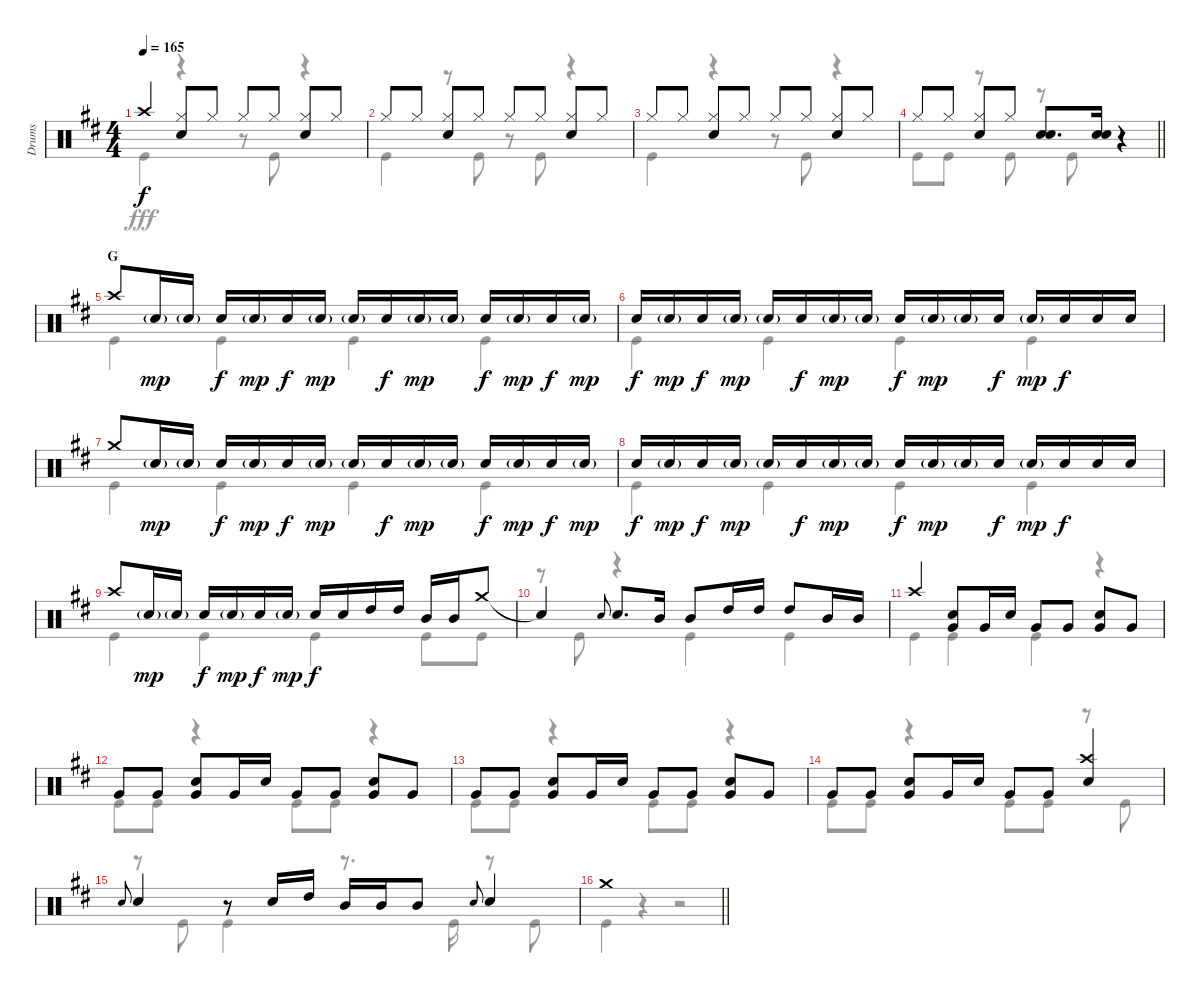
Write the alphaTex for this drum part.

\track ("Drums" "Drums") {instrument percussion}
\staff {score}
\articulation defaults
\voice
\ts (4 4)
\tempo 165
\clef neutral
\ks d "Crash high (hit)".4{dy f}
("Hi-Hat (closed)" "Snare (hit) 2").8 "Hi-Hat (closed)".8 "Hi-Hat (closed)".8 "Hi-Hat (closed)".8 ("Hi-Hat (closed)" "Snare (hit) 2").8 "Hi-Hat (closed)".8 |
"Hi-Hat (closed)".8 "Hi-Hat (closed)".8 ("Hi-Hat (closed)" "Snare (hit) 2").8 "Hi-Hat (closed)".8 "Hi-Hat (closed)".8 "Hi-Hat (closed)".8 ("Hi-Hat (closed)" "Snare (hit) 2").8 "Hi-Hat (closed)".8 |
"Hi-Hat (closed)".8 "Hi-Hat (closed)".8 ("Hi-Hat (closed)" "Snare (hit) 2").8 "Hi-Hat (closed)".8 "Hi-Hat (closed)".8 "Hi-Hat (closed)".8 ("Hi-Hat (closed)" "Snare (hit) 2").8 "Hi-Hat (closed)".8 |
\barLineRight lightlight "Hi-Hat (closed)".8 "Hi-Hat (closed)".8
("Hi-Hat (closed)" "Snare (hit) 2").8 "Hi-Hat (closed)".8 ("Snare (hit) 2" "Snare (hit) 2").8{d} ("Snare (hit) 2" "Snare (hit) 2").16 r.4 |
\section ("" "G")
"Crash high (hit)".8 "Snare (hit) 2"{g}.16{dy mp} "Snare (hit) 2"{g}.16 "Snare (hit) 2".16{dy f} "Snare (hit) 2"{g}.16{dy mp} "Snare (hit) 2".16{dy f} "Snare (hit) 2"{g}.16{dy mp} "Snare (hit) 2"{g}.16 "Snare (hit) 2".16{dy f} "Snare (hit) 2"{g}.16{dy mp} "Snare (hit) 2"{g}.16 "Snare (hit) 2".16{dy f} "Snare (hit) 2"{g}.16{dy mp} "Snare (hit) 2".16{dy f} "Snare (hit) 2"{g}.16{dy mp} |
"Snare (hit) 2".16{dy f} "Snare (hit) 2"{g}.16{dy mp} "Snare (hit) 2".16{dy f} "Snare (hit) 2"{g}.16{dy mp} "Snare (hit) 2"{g}.16 "Snare (hit) 2".16{dy f} "Snare (hit) 2"{g}.16{dy mp} "Snare (hit) 2"{g}.16 "Snare (hit) 2".16{dy f} "Snare (hit) 2"{g}.16{dy mp} "Snare (hit) 2"{g}.16 "Snare (hit) 2".16{dy f} "Snare (hit) 2"{g}.16{dy mp} "Snare (hit) 2".16{dy f} "Snare (hit) 2".16 "Snare (hit) 2".16 |
"Crash medium (hit)".8 "Snare (hit) 2"{g}.16{dy mp} "Snare (hit) 2"{g}.16 "Snare (hit) 2".16{dy f} "Snare (hit) 2"{g}.16{dy mp} "Snare (hit) 2".16{dy f} "Snare (hit) 2"{g}.16{dy mp} "Snare (hit) 2"{g}.16 "Snare (hit) 2".16{dy f} "Snare (hit) 2"{g}.16{dy mp} "Snare (hit) 2"{g}.16 "Snare (hit) 2".16{dy f} "Snare (hit) 2"{g}.16{dy mp} "Snare (hit) 2".16{dy f} "Snare (hit) 2"{g}.16{dy mp} |
"Snare (hit) 2".16{dy f} "Snare (hit) 2"{g}.16{dy mp} "Snare (hit) 2".16{dy f} "Snare (hit) 2"{g}.16{dy mp} "Snare (hit) 2"{g}.16 "Snare (hit) 2".16{dy f} "Snare (hit) 2"{g}.16{dy mp} "Snare (hit) 2"{g}.16 "Snare (hit) 2".16{dy f} "Snare (hit) 2"{g}.16{dy mp} "Snare (hit) 2"{g}.16 "Snare (hit) 2".16{dy f} "Snare (hit) 2"{g}.16{dy mp} "Snare (hit) 2".16{dy f} "Snare (hit) 2".16 "Snare (hit) 2".16 |
"Crash high (hit)".8 "Snare (hit) 2"{g}.16{dy mp} "Snare (hit) 2"{g}.16 "Snare (hit) 2".16{dy f} "Snare (hit) 2"{g}.16{dy mp} "Snare (hit) 2".16{dy f} "Snare (hit) 2"{g}.16{dy mp} "Snare (hit) 2".16{dy f} "Snare (hit) 2".16 "High Tom (hit)".16 "High Tom (hit)".16 "Mid Tom (hit)".16 "Mid Tom (hit)".16 "Crash medium (hit)".8 |
"Snare (hit)"{t}.4 "Snare (hit) 2".8{gr onbeat} "Snare (hit) 2".8{d} "Mid Tom (hit)".16 "Mid Tom (hit)".8 "High Tom (hit)".16 "High Tom (hit)".16 "High Tom (hit)".8 "Mid Tom (hit)".16 "Mid Tom (hit)".16 |
"Crash high (hit)".4 ("Snare (hit) 2" "Very Low Tom (hit)").8 "Very Low Tom (hit)".16 "Snare (hit) 2".16 "Very Low Tom (hit)".8 "Very Low Tom (hit)".8 ("Snare (hit) 2" "Very Low Tom (hit)").8 "Very Low Tom (hit)".8 |
"Very Low Tom (hit)".8 "Very Low Tom (hit)".8 ("Snare (hit) 2" "Very Low Tom (hit)").8 "Very Low Tom (hit)".16 "Snare (hit) 2".16 "Very Low Tom (hit)".8 "Very Low Tom (hit)".8 ("Snare (hit) 2" "Very Low Tom (hit)").8 "Very Low Tom (hit)".8 |
"Very Low Tom (hit)".8 "Very Low Tom (hit)".8 ("Snare (hit) 2" "Very Low Tom (hit)").8 "Very Low Tom (hit)".16 "Snare (hit) 2".16 "Very Low Tom (hit)".8 "Very Low Tom (hit)".8 ("Snare (hit) 2" "Very Low Tom (hit)").8 "Very Low Tom (hit)".8 |
"Very Low Tom (hit)".8 "Very Low Tom (hit)".8 ("Snare (hit) 2" "Very Low Tom (hit)").8 "Very Low Tom (hit)".16 "Snare (hit) 2".16 "Very Low Tom (hit)".8 "Very Low Tom (hit)".8 ("Crash high (hit)" "Snare (hit) 2").4 |
"Snare (hit) 2".8{gr onbeat} "Snare (hit) 2".4 r.8 "Snare (hit) 2".16 "High Tom (hit)".16 "Mid Tom (hit)".16 "Mid Tom (hit)".16 "Mid Tom (hit)".8 "Snare (hit) 2".8{gr onbeat} "Snare (hit) 2".4 |
\barLineRight lightlight "Crash medium (hit)".1
\voice
\clef neutral
\ottava regular
\simile none
\ks d "Kick (hit)".4{dy fff}
r.4 r.8 "Kick (hit)".8 r.4 |
"Kick (hit)".4 r.8 "Kick (hit)".8 r.8 "Kick (hit)".8 r.4 |
"Kick (hit)".4 r.4 r.8 "Kick (hit)".8 r.4 |
\barLineRight lightlight "Kick (hit)".8 "Kick (hit)".8
r.8 "Kick (hit)".8 r.8 "Kick (hit)".8 r.4 |
"Kick (hit)".4 "Kick (hit)".4 "Kick (hit)".4 "Kick (hit)".4 |
"Kick (hit)".4 "Kick (hit)".4 "Kick (hit)".4 "Kick (hit)".4 |
"Kick (hit)".4 "Kick (hit)".4 "Kick (hit)".4 "Kick (hit)".4 |
"Kick (hit)".4 "Kick (hit)".4 "Kick (hit)".4 "Kick (hit)".4 |
"Kick (hit)".4 "Kick (hit)".4 "Kick (hit)".4 "Kick (hit)".8 "Kick (hit)".8 |
r.8 "Kick (hit)".8 r.4 "Kick (hit)".4 "Kick (hit)".4 |
"Kick (hit)".4 "Kick (hit)".4 "Kick (hit)".4 r.4 |
"Kick (hit)".8 "Kick (hit)".8 r.4 "Kick (hit)".8 "Kick (hit)".8 r.4 |
"Kick (hit)".8 "Kick (hit)".8 r.4 "Kick (hit)".8 "Kick (hit)".8 r.4 |
"Kick (hit)".8 "Kick (hit)".8 r.4 "Kick (hit)".8 "Kick (hit)".8 r.8 "Kick (hit)".8 |
r.8 "Kick (hit)".8 "Kick (hit)".4 r.8{d} "Kick (hit)".16 r.8 "Kick (hit)".8 |
\barLineRight lightlight "Kick (hit)".4
r.4 r.2
